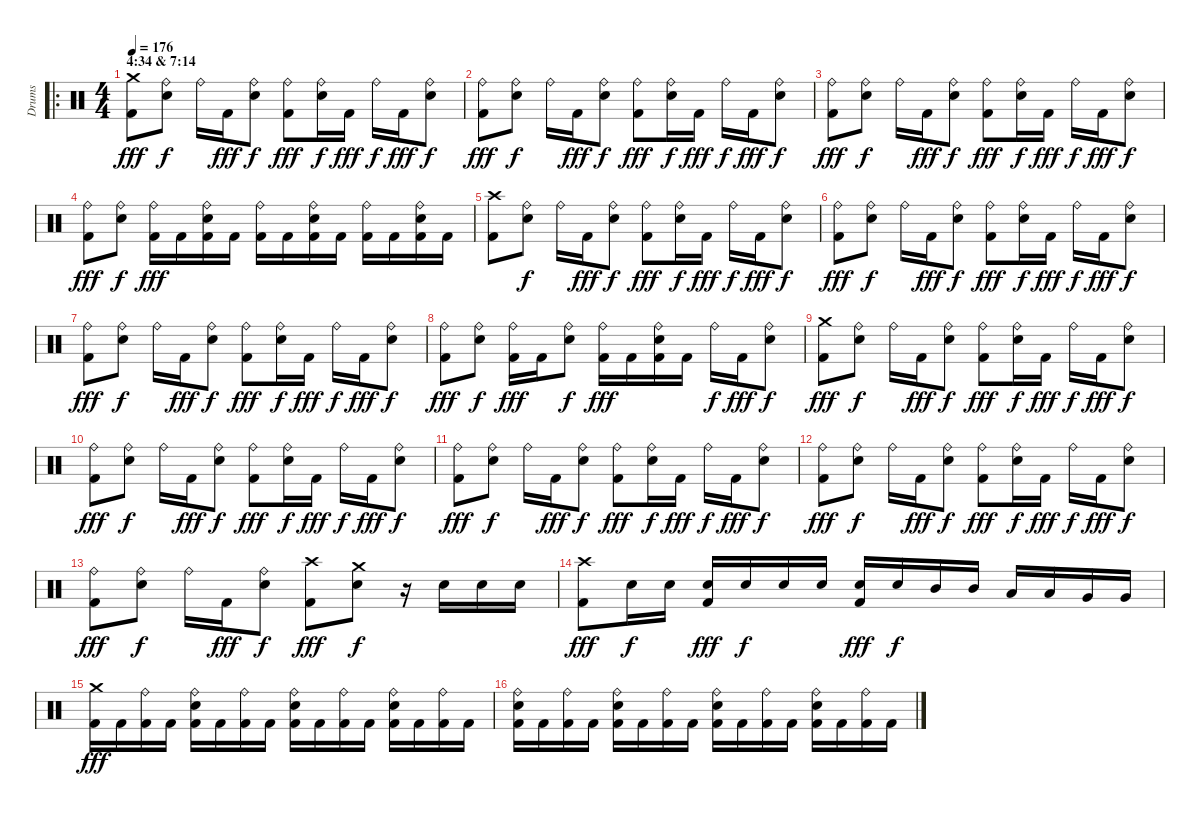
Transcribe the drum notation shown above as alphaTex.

\track ("Drums" "Drums") {instrument percussion}
\staff {score}
\articulation defaults
\ro
\ts (4 4)
\section ("" "4:34 & 7:14")
\tempo 176
\clef neutral
\ks c
("Crash medium (hit)" "Kick (hit) 2").8{dy fff} ("Ride (bell)" "Snare (hit) 2").8{dy f} "Ride (bell)".16 "Kick (hit) 2".16{dy fff} ("Ride (bell)" "Snare (hit) 2").8{dy f} ("Ride (bell)" "Kick (hit) 2").8{dy fff} ("Ride (bell)" "Snare (hit) 2").16{dy f} "Kick (hit) 2".16{dy fff} "Ride (bell)".16{dy f} "Kick (hit) 2".16{dy fff} ("Ride (bell)" "Snare (hit) 2").8{dy f} |
("Ride (bell)" "Kick (hit) 2").8{dy fff} ("Ride (bell)" "Snare (hit) 2").8{dy f} "Ride (bell)".16 "Kick (hit) 2".16{dy fff} ("Ride (bell)" "Snare (hit) 2").8{dy f} ("Ride (bell)" "Kick (hit) 2").8{dy fff} ("Ride (bell)" "Snare (hit) 2").16{dy f} "Kick (hit) 2".16{dy fff} "Ride (bell)".16{dy f} "Kick (hit) 2".16{dy fff} ("Ride (bell)" "Snare (hit) 2").8{dy f} |
("Ride (bell)" "Kick (hit) 2").8{dy fff} ("Ride (bell)" "Snare (hit) 2").8{dy f} "Ride (bell)".16 "Kick (hit) 2".16{dy fff} ("Ride (bell)" "Snare (hit) 2").8{dy f} ("Ride (bell)" "Kick (hit) 2").8{dy fff} ("Ride (bell)" "Snare (hit) 2").16{dy f} "Kick (hit) 2".16{dy fff} "Ride (bell)".16{dy f} "Kick (hit) 2".16{dy fff} ("Ride (bell)" "Snare (hit) 2").8{dy f} |
("Ride (bell)" "Kick (hit) 2").8{dy fff} ("Ride (bell)" "Snare (hit) 2").8{dy f} ("Ride (bell)" "Kick (hit) 2").16{dy fff} "Kick (hit) 2".16 ("Ride (bell)" "Snare (hit) 2" "Kick (hit) 2").16 "Kick (hit) 2".16 ("Ride (bell)" "Kick (hit) 2").16 "Kick (hit) 2".16 ("Ride (bell)" "Snare (hit) 2" "Kick (hit) 2").16 "Kick (hit) 2".16 ("Ride (bell)" "Kick (hit) 2").16 "Kick (hit) 2".16 ("Ride (bell)" "Snare (hit) 2" "Kick (hit) 2").16 "Kick (hit) 2".16 |
("Crash high (hit)" "Kick (hit) 2").8 ("Ride (bell)" "Snare (hit) 2").8{dy f} "Ride (bell)".16 "Kick (hit) 2".16{dy fff} ("Ride (bell)" "Snare (hit) 2").8{dy f} ("Ride (bell)" "Kick (hit) 2").8{dy fff} ("Ride (bell)" "Snare (hit) 2").16{dy f} "Kick (hit) 2".16{dy fff} "Ride (bell)".16{dy f} "Kick (hit) 2".16{dy fff} ("Ride (bell)" "Snare (hit) 2").8{dy f} |
("Ride (bell)" "Kick (hit) 2").8{dy fff} ("Ride (bell)" "Snare (hit) 2").8{dy f} "Ride (bell)".16 "Kick (hit) 2".16{dy fff} ("Ride (bell)" "Snare (hit) 2").8{dy f} ("Ride (bell)" "Kick (hit) 2").8{dy fff} ("Ride (bell)" "Snare (hit) 2").16{dy f} "Kick (hit) 2".16{dy fff} "Ride (bell)".16{dy f} "Kick (hit) 2".16{dy fff} ("Ride (bell)" "Snare (hit) 2").8{dy f} |
("Ride (bell)" "Kick (hit) 2").8{dy fff} ("Ride (bell)" "Snare (hit) 2").8{dy f} "Ride (bell)".16 "Kick (hit) 2".16{dy fff} ("Ride (bell)" "Snare (hit) 2").8{dy f} ("Ride (bell)" "Kick (hit) 2").8{dy fff} ("Ride (bell)" "Snare (hit) 2").16{dy f} "Kick (hit) 2".16{dy fff} "Ride (bell)".16{dy f} "Kick (hit) 2".16{dy fff} ("Ride (bell)" "Snare (hit) 2").8{dy f} |
("Ride (bell)" "Kick (hit) 2").8{dy fff} ("Ride (bell)" "Snare (hit) 2").8{dy f} ("Ride (bell)" "Kick (hit) 2").16{dy fff} "Kick (hit) 2".16 ("Ride (bell)" "Snare (hit) 2").8{dy f} ("Ride (bell)" "Kick (hit) 2").16{dy fff} "Kick (hit) 2".16 ("Ride (bell)" "Snare (hit) 2" "Kick (hit) 2").16 "Kick (hit) 2".16 "Ride (bell)".16{dy f} "Kick (hit) 2".16{dy fff} ("Ride (bell)" "Snare (hit) 2").8{dy f} |
("Crash medium (hit)" "Kick (hit) 2").8{dy fff} ("Ride (bell)" "Snare (hit) 2").8{dy f} "Ride (bell)".16 "Kick (hit) 2".16{dy fff} ("Ride (bell)" "Snare (hit) 2").8{dy f} ("Ride (bell)" "Kick (hit) 2").8{dy fff} ("Ride (bell)" "Snare (hit) 2").16{dy f} "Kick (hit) 2".16{dy fff} "Ride (bell)".16{dy f} "Kick (hit) 2".16{dy fff} ("Ride (bell)" "Snare (hit) 2").8{dy f} |
("Ride (bell)" "Kick (hit) 2").8{dy fff} ("Ride (bell)" "Snare (hit) 2").8{dy f} "Ride (bell)".16 "Kick (hit) 2".16{dy fff} ("Ride (bell)" "Snare (hit) 2").8{dy f} ("Ride (bell)" "Kick (hit) 2").8{dy fff} ("Ride (bell)" "Snare (hit) 2").16{dy f} "Kick (hit) 2".16{dy fff} "Ride (bell)".16{dy f} "Kick (hit) 2".16{dy fff} ("Ride (bell)" "Snare (hit) 2").8{dy f} |
("Ride (bell)" "Kick (hit) 2").8{dy fff} ("Ride (bell)" "Snare (hit) 2").8{dy f} "Ride (bell)".16 "Kick (hit) 2".16{dy fff} ("Ride (bell)" "Snare (hit) 2").8{dy f} ("Ride (bell)" "Kick (hit) 2").8{dy fff} ("Ride (bell)" "Snare (hit) 2").16{dy f} "Kick (hit) 2".16{dy fff} "Ride (bell)".16{dy f} "Kick (hit) 2".16{dy fff} ("Ride (bell)" "Snare (hit) 2").8{dy f} |
("Ride (bell)" "Kick (hit) 2").8{dy fff} ("Ride (bell)" "Snare (hit) 2").8{dy f} "Ride (bell)".16 "Kick (hit) 2".16{dy fff} ("Ride (bell)" "Snare (hit) 2").8{dy f} ("Ride (bell)" "Kick (hit) 2").8{dy fff} ("Ride (bell)" "Snare (hit) 2").16{dy f} "Kick (hit) 2".16{dy fff} "Ride (bell)".16{dy f} "Kick (hit) 2".16{dy fff} ("Ride (bell)" "Snare (hit) 2").8{dy f} |
("Ride (bell)" "Kick (hit) 2").8{dy fff} ("Ride (bell)" "Snare (hit) 2").8{dy f} "Ride (bell)".16 "Kick (hit) 2".16{dy fff} ("Ride (bell)" "Snare (hit) 2").8{dy f} ("Crash high (hit)" "Kick (hit) 2").8{dy fff} ("Crash medium (hit)" "Snare (hit) 2").8{dy f} r.16 "Snare (hit) 2".16 "Snare (hit) 2".16 "Snare (hit) 2".16 |
("Crash high (hit)" "Kick (hit) 2").8{dy fff} "Snare (hit) 2".16{dy f} "Snare (hit) 2".16 ("Snare (hit) 2" "Kick (hit) 2").16{dy fff} "Snare (hit) 2".16{dy f} "Snare (hit) 2".16 "Snare (hit) 2".16 ("Snare (hit) 2" "Kick (hit) 2").16{dy fff} "Snare (hit) 2".16{dy f} "Mid Tom (hit)".16 "Mid Tom (hit)".16 "Low Tom (hit)".16 "Low Tom (hit)".16 "Very Low Tom (hit)".16 "Very Low Tom (hit)".16 |
("Crash medium (hit)" "Kick (hit) 2").16{dy fff} "Kick (hit) 2".16 ("Ride (bell)" "Kick (hit) 2").16 "Kick (hit) 2".16 ("Ride (bell)" "Snare (hit) 2" "Kick (hit) 2").16 "Kick (hit) 2".16 ("Ride (bell)" "Kick (hit) 2").16 "Kick (hit) 2".16 ("Ride (bell)" "Snare (hit) 2" "Kick (hit) 2").16 "Kick (hit) 2".16 ("Ride (bell)" "Kick (hit) 2").16 "Kick (hit) 2".16 ("Ride (bell)" "Snare (hit) 2" "Kick (hit) 2").16 "Kick (hit) 2".16 ("Ride (bell)" "Kick (hit) 2").16 "Kick (hit) 2".16 |
("Ride (bell)" "Snare (hit) 2" "Kick (hit) 2").16 "Kick (hit) 2".16 ("Ride (bell)" "Kick (hit) 2").16 "Kick (hit) 2".16 ("Ride (bell)" "Snare (hit) 2" "Kick (hit) 2").16 "Kick (hit) 2".16 ("Ride (bell)" "Kick (hit) 2").16 "Kick (hit) 2".16 ("Ride (bell)" "Snare (hit) 2" "Kick (hit) 2").16 "Kick (hit) 2".16 ("Ride (bell)" "Kick (hit) 2").16 "Kick (hit) 2".16 ("Ride (bell)" "Snare (hit) 2" "Kick (hit) 2").16 "Kick (hit) 2".16 ("Ride (bell)" "Kick (hit) 2").16 "Kick (hit) 2".16
